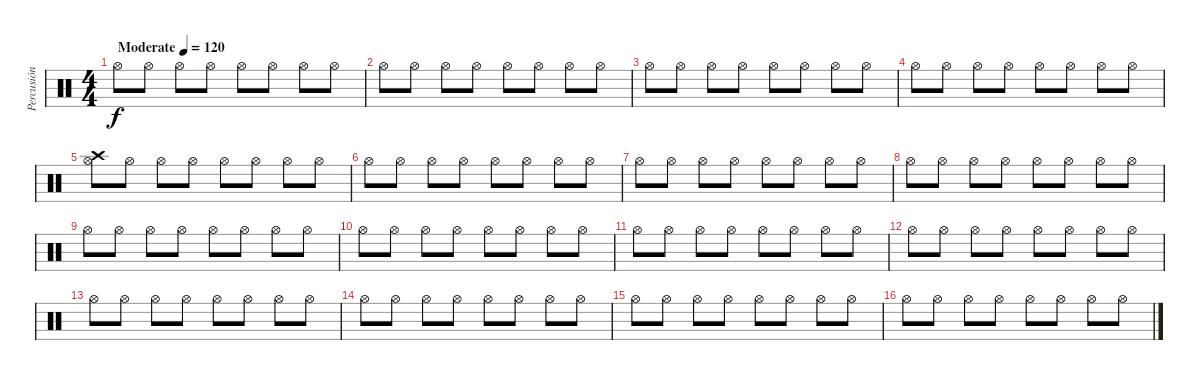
\track ("Percusión" "Percusión") {instrument percussion}
\staff {score}
\articulation defaults
\ts (4 4)
\tempo (120 "Moderate")
\clef neutral
\ks c "Hi-Hat (open)".8{dy f} "Hi-Hat (open)".8 "Hi-Hat (open)".8 "Hi-Hat (open)".8 "Hi-Hat (open)".8 "Hi-Hat (open)".8 "Hi-Hat (open)".8 "Hi-Hat (open)".8
|
"Hi-Hat (open)".8 "Hi-Hat (open)".8 "Hi-Hat (open)".8 "Hi-Hat (open)".8 "Hi-Hat (open)".8 "Hi-Hat (open)".8 "Hi-Hat (open)".8 "Hi-Hat (open)".8 |
"Hi-Hat (open)".8 "Hi-Hat (open)".8 "Hi-Hat (open)".8 "Hi-Hat (open)".8 "Hi-Hat (open)".8 "Hi-Hat (open)".8 "Hi-Hat (open)".8 "Hi-Hat (open)".8 |
"Hi-Hat (open)".8 "Hi-Hat (open)".8 "Hi-Hat (open)".8 "Hi-Hat (open)".8 "Hi-Hat (open)".8 "Hi-Hat (open)".8 "Hi-Hat (open)".8 "Hi-Hat (open)".8 |
("Hi-Hat (open)" "Crash high (hit)").8 "Hi-Hat (open)".8 "Hi-Hat (open)".8 "Hi-Hat (open)".8 "Hi-Hat (open)".8 "Hi-Hat (open)".8 "Hi-Hat (open)".8 "Hi-Hat (open)".8 |
"Hi-Hat (open)".8 "Hi-Hat (open)".8 "Hi-Hat (open)".8 "Hi-Hat (open)".8 "Hi-Hat (open)".8 "Hi-Hat (open)".8 "Hi-Hat (open)".8 "Hi-Hat (open)".8 |
"Hi-Hat (open)".8 "Hi-Hat (open)".8 "Hi-Hat (open)".8 "Hi-Hat (open)".8 "Hi-Hat (open)".8 "Hi-Hat (open)".8 "Hi-Hat (open)".8 "Hi-Hat (open)".8 |
"Hi-Hat (open)".8 "Hi-Hat (open)".8 "Hi-Hat (open)".8 "Hi-Hat (open)".8 "Hi-Hat (open)".8 "Hi-Hat (open)".8 "Hi-Hat (open)".8 "Hi-Hat (open)".8 |
"Hi-Hat (open)".8 "Hi-Hat (open)".8 "Hi-Hat (open)".8 "Hi-Hat (open)".8 "Hi-Hat (open)".8 "Hi-Hat (open)".8 "Hi-Hat (open)".8 "Hi-Hat (open)".8 |
"Hi-Hat (open)".8 "Hi-Hat (open)".8 "Hi-Hat (open)".8 "Hi-Hat (open)".8 "Hi-Hat (open)".8 "Hi-Hat (open)".8 "Hi-Hat (open)".8 "Hi-Hat (open)".8 |
"Hi-Hat (open)".8 "Hi-Hat (open)".8 "Hi-Hat (open)".8 "Hi-Hat (open)".8 "Hi-Hat (open)".8 "Hi-Hat (open)".8 "Hi-Hat (open)".8 "Hi-Hat (open)".8 |
"Hi-Hat (open)".8 "Hi-Hat (open)".8 "Hi-Hat (open)".8 "Hi-Hat (open)".8 "Hi-Hat (open)".8 "Hi-Hat (open)".8 "Hi-Hat (open)".8 "Hi-Hat (open)".8 |
"Hi-Hat (open)".8 "Hi-Hat (open)".8 "Hi-Hat (open)".8 "Hi-Hat (open)".8 "Hi-Hat (open)".8 "Hi-Hat (open)".8 "Hi-Hat (open)".8 "Hi-Hat (open)".8 |
"Hi-Hat (open)".8 "Hi-Hat (open)".8 "Hi-Hat (open)".8 "Hi-Hat (open)".8 "Hi-Hat (open)".8 "Hi-Hat (open)".8 "Hi-Hat (open)".8 "Hi-Hat (open)".8 |
"Hi-Hat (open)".8 "Hi-Hat (open)".8 "Hi-Hat (open)".8 "Hi-Hat (open)".8 "Hi-Hat (open)".8 "Hi-Hat (open)".8 "Hi-Hat (open)".8 "Hi-Hat (open)".8 |
"Hi-Hat (open)".8 "Hi-Hat (open)".8 "Hi-Hat (open)".8 "Hi-Hat (open)".8 "Hi-Hat (open)".8 "Hi-Hat (open)".8 "Hi-Hat (open)".8 "Hi-Hat (open)".8
